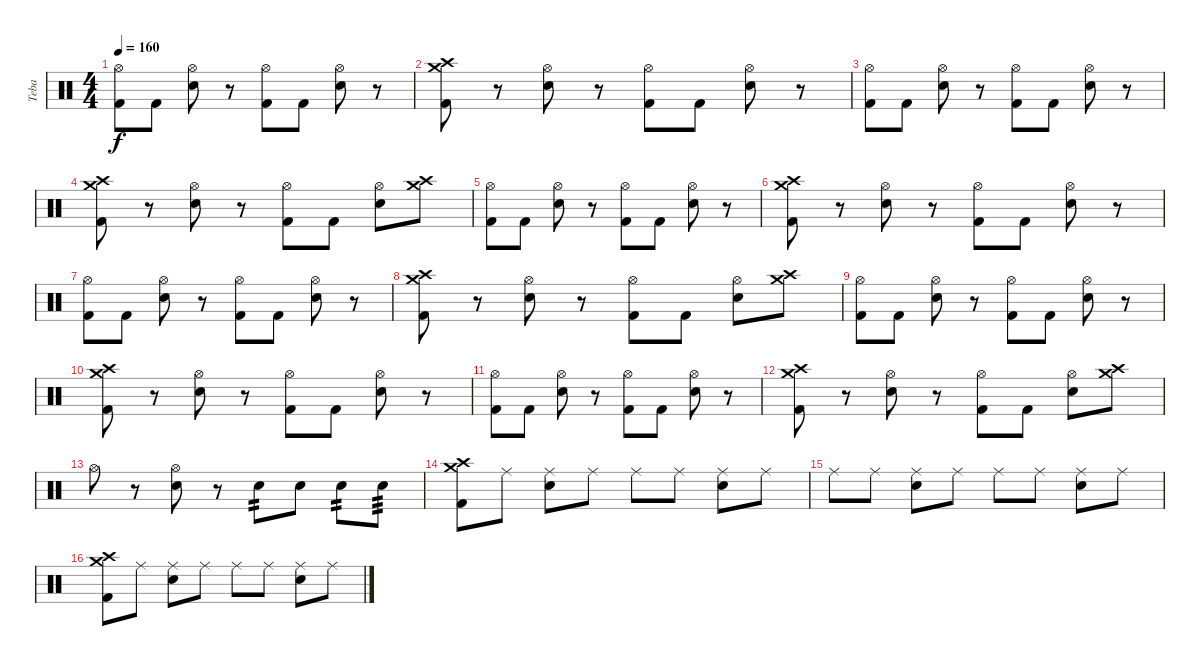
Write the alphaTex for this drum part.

\track ("Teba" "Teba") {instrument percussion}
\staff {score}
\articulation defaults
\ts (4 4)
\tempo 160
\clef neutral
\ks c
("Hi-Hat (open)" "Kick (hit) 2").8{dy f} "Kick (hit) 2".8 ("Hi-Hat (open)" "Electric Snare (hit)").8 r.8 ("Hi-Hat (open)" "Kick (hit) 2").8 "Kick (hit) 2".8 ("Hi-Hat (open)" "Electric Snare (hit)").8 r.8 |
("Crash medium (hit)" "Crash high (hit)" "Kick (hit) 2").8 r.8 ("Hi-Hat (open)" "Electric Snare (hit)").8 r.8 ("Hi-Hat (open)" "Kick (hit) 2").8 "Kick (hit) 2".8 ("Hi-Hat (open)" "Electric Snare (hit)").8 r.8 |
("Hi-Hat (open)" "Kick (hit) 2").8 "Kick (hit) 2".8 ("Hi-Hat (open)" "Electric Snare (hit)").8 r.8 ("Hi-Hat (open)" "Kick (hit) 2").8 "Kick (hit) 2".8 ("Hi-Hat (open)" "Electric Snare (hit)").8 r.8 |
("Crash medium (hit)" "Crash high (hit)" "Kick (hit) 2").8 r.8 ("Hi-Hat (open)" "Electric Snare (hit)").8 r.8 ("Hi-Hat (open)" "Kick (hit) 2").8 "Kick (hit) 2".8 ("Hi-Hat (open)" "Electric Snare (hit)").8 ("Crash medium (hit)" "Crash high (hit)").8 |
("Hi-Hat (open)" "Kick (hit) 2").8 "Kick (hit) 2".8 ("Hi-Hat (open)" "Electric Snare (hit)").8 r.8 ("Hi-Hat (open)" "Kick (hit) 2").8 "Kick (hit) 2".8 ("Hi-Hat (open)" "Electric Snare (hit)").8 r.8 |
("Crash medium (hit)" "Crash high (hit)" "Kick (hit) 2").8 r.8 ("Hi-Hat (open)" "Electric Snare (hit)").8 r.8 ("Hi-Hat (open)" "Kick (hit) 2").8 "Kick (hit) 2".8 ("Hi-Hat (open)" "Electric Snare (hit)").8 r.8 |
("Hi-Hat (open)" "Kick (hit) 2").8 "Kick (hit) 2".8 ("Hi-Hat (open)" "Electric Snare (hit)").8 r.8 ("Hi-Hat (open)" "Kick (hit) 2").8 "Kick (hit) 2".8 ("Hi-Hat (open)" "Electric Snare (hit)").8 r.8 |
("Crash medium (hit)" "Crash high (hit)" "Kick (hit) 2").8 r.8 ("Hi-Hat (open)" "Electric Snare (hit)").8 r.8 ("Hi-Hat (open)" "Kick (hit) 2").8 "Kick (hit) 2".8 ("Hi-Hat (open)" "Electric Snare (hit)").8 ("Crash medium (hit)" "Crash high (hit)").8 |
("Hi-Hat (open)" "Kick (hit) 2").8 "Kick (hit) 2".8 ("Hi-Hat (open)" "Electric Snare (hit)").8 r.8 ("Hi-Hat (open)" "Kick (hit) 2").8 "Kick (hit) 2".8 ("Hi-Hat (open)" "Electric Snare (hit)").8 r.8 |
("Crash medium (hit)" "Crash high (hit)" "Kick (hit) 2").8 r.8 ("Hi-Hat (open)" "Electric Snare (hit)").8 r.8 ("Hi-Hat (open)" "Kick (hit) 2").8 "Kick (hit) 2".8 ("Hi-Hat (open)" "Electric Snare (hit)").8 r.8 |
("Hi-Hat (open)" "Kick (hit) 2").8 "Kick (hit) 2".8 ("Hi-Hat (open)" "Electric Snare (hit)").8 r.8 ("Hi-Hat (open)" "Kick (hit) 2").8 "Kick (hit) 2".8 ("Hi-Hat (open)" "Electric Snare (hit)").8 r.8 |
("Crash medium (hit)" "Crash high (hit)" "Kick (hit) 2").8 r.8 ("Hi-Hat (open)" "Electric Snare (hit)").8 r.8 ("Hi-Hat (open)" "Kick (hit) 2").8 "Kick (hit) 2".8 ("Hi-Hat (open)" "Electric Snare (hit)").8 ("Crash medium (hit)" "Crash high (hit)").8 |
"Hi-Hat (open)".8 r.8 ("Hi-Hat (open)" "Electric Snare (hit)").8 r.8 "Electric Snare (hit)".8{tp 2} "Electric Snare (hit)".8 "Electric Snare (hit)".8{tp 2} "Electric Snare (hit)".8{tp 3} |
("Crash medium (hit)" "Crash high (hit)" "Kick (hit) 2").8 "Ride (middle)".8 ("Ride (middle)" "Electric Snare (hit)").8 "Ride (middle)".8 "Ride (middle)".8 "Ride (middle)".8 ("Ride (middle)" "Electric Snare (hit)").8 "Ride (middle)".8 |
"Ride (middle)".8 "Ride (middle)".8 ("Ride (middle)" "Electric Snare (hit)").8 "Ride (middle)".8 "Ride (middle)".8 "Ride (middle)".8 ("Ride (middle)" "Electric Snare (hit)").8 "Ride (middle)".8 |
("Crash medium (hit)" "Crash high (hit)" "Kick (hit) 2").8 "Ride (middle)".8 ("Ride (middle)" "Electric Snare (hit)").8 "Ride (middle)".8 "Ride (middle)".8 "Ride (middle)".8 ("Ride (middle)" "Electric Snare (hit)").8 "Ride (middle)".8
